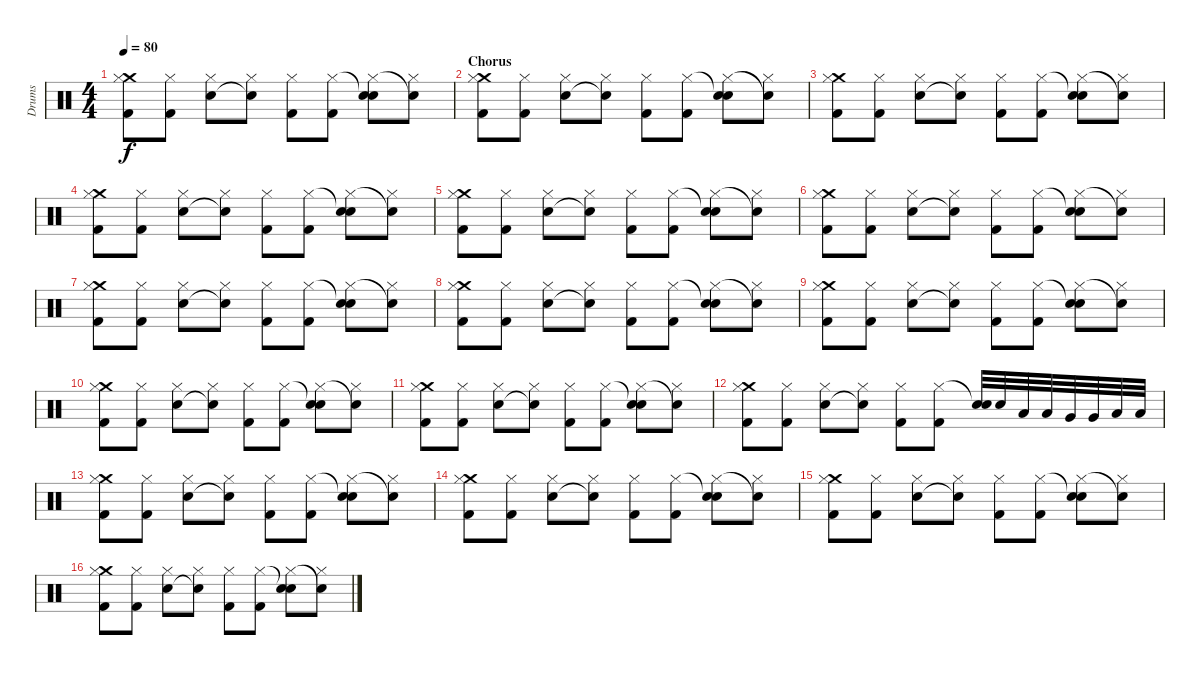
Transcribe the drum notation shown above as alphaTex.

\track ("Drums" "Drums") {instrument percussion}
\staff {score}
\articulation defaults
\ts (4 4)
\tempo 80
\clef neutral
\ks c
("Crash medium (hit)" "Hi-Hat (closed)" "Kick (hit) 2").8{dy f} ("Hi-Hat (closed)" "Kick (hit) 2").8 ("Hi-Hat (closed)" "Electric Snare (hit)").8 ("Hi-Hat (closed)" "Snare (hit)"{t}).8 ("Hi-Hat (closed)" "Kick (hit) 2").8 ("Hi-Hat (closed)" "Kick (hit) 2").8 ("Snare (hit)"{t} "Hi-Hat (closed)" "Electric Snare (hit)").8 ("Hi-Hat (closed)" "Snare (hit)"{t}).8 |
\section ("" "Chorus")
("Crash medium (hit)" "Hi-Hat (closed)" "Kick (hit) 2").8 ("Hi-Hat (closed)" "Kick (hit) 2").8 ("Hi-Hat (closed)" "Electric Snare (hit)").8 ("Hi-Hat (closed)" "Snare (hit)"{t}).8 ("Hi-Hat (closed)" "Kick (hit) 2").8 ("Hi-Hat (closed)" "Kick (hit) 2").8 ("Snare (hit)"{t} "Hi-Hat (closed)" "Electric Snare (hit)").8 ("Hi-Hat (closed)" "Snare (hit)"{t}).8 |
("Crash medium (hit)" "Hi-Hat (closed)" "Kick (hit) 2").8 ("Hi-Hat (closed)" "Kick (hit) 2").8 ("Hi-Hat (closed)" "Electric Snare (hit)").8 ("Hi-Hat (closed)" "Snare (hit)"{t}).8 ("Hi-Hat (closed)" "Kick (hit) 2").8 ("Hi-Hat (closed)" "Kick (hit) 2").8 ("Snare (hit)"{t} "Hi-Hat (closed)" "Electric Snare (hit)").8 ("Hi-Hat (closed)" "Snare (hit)"{t}).8 |
("Crash medium (hit)" "Hi-Hat (closed)" "Kick (hit) 2").8 ("Hi-Hat (closed)" "Kick (hit) 2").8 ("Hi-Hat (closed)" "Electric Snare (hit)").8 ("Hi-Hat (closed)" "Snare (hit)"{t}).8 ("Hi-Hat (closed)" "Kick (hit) 2").8 ("Hi-Hat (closed)" "Kick (hit) 2").8 ("Snare (hit)"{t} "Hi-Hat (closed)" "Electric Snare (hit)").8 ("Hi-Hat (closed)" "Snare (hit)"{t}).8 |
("Crash medium (hit)" "Hi-Hat (closed)" "Kick (hit) 2").8 ("Hi-Hat (closed)" "Kick (hit) 2").8 ("Hi-Hat (closed)" "Electric Snare (hit)").8 ("Hi-Hat (closed)" "Snare (hit)"{t}).8 ("Hi-Hat (closed)" "Kick (hit) 2").8 ("Hi-Hat (closed)" "Kick (hit) 2").8 ("Snare (hit)"{t} "Hi-Hat (closed)" "Electric Snare (hit)").8 ("Hi-Hat (closed)" "Snare (hit)"{t}).8 |
("Crash medium (hit)" "Hi-Hat (closed)" "Kick (hit) 2").8 ("Hi-Hat (closed)" "Kick (hit) 2").8 ("Hi-Hat (closed)" "Electric Snare (hit)").8 ("Hi-Hat (closed)" "Snare (hit)"{t}).8 ("Hi-Hat (closed)" "Kick (hit) 2").8 ("Hi-Hat (closed)" "Kick (hit) 2").8 ("Snare (hit)"{t} "Hi-Hat (closed)" "Electric Snare (hit)").8 ("Hi-Hat (closed)" "Snare (hit)"{t}).8 |
("Crash medium (hit)" "Hi-Hat (closed)" "Kick (hit) 2").8 ("Hi-Hat (closed)" "Kick (hit) 2").8 ("Hi-Hat (closed)" "Electric Snare (hit)").8 ("Hi-Hat (closed)" "Snare (hit)"{t}).8 ("Hi-Hat (closed)" "Kick (hit) 2").8 ("Hi-Hat (closed)" "Kick (hit) 2").8 ("Snare (hit)"{t} "Hi-Hat (closed)" "Electric Snare (hit)").8 ("Hi-Hat (closed)" "Snare (hit)"{t}).8 |
("Crash medium (hit)" "Hi-Hat (closed)" "Kick (hit) 2").8 ("Hi-Hat (closed)" "Kick (hit) 2").8 ("Hi-Hat (closed)" "Electric Snare (hit)").8 ("Hi-Hat (closed)" "Snare (hit)"{t}).8 ("Hi-Hat (closed)" "Kick (hit) 2").8 ("Hi-Hat (closed)" "Kick (hit) 2").8 ("Snare (hit)"{t} "Hi-Hat (closed)" "Electric Snare (hit)").8 ("Hi-Hat (closed)" "Snare (hit)"{t}).8 |
("Crash medium (hit)" "Hi-Hat (closed)" "Kick (hit) 2").8 ("Hi-Hat (closed)" "Kick (hit) 2").8 ("Hi-Hat (closed)" "Electric Snare (hit)").8 ("Hi-Hat (closed)" "Snare (hit)"{t}).8 ("Hi-Hat (closed)" "Kick (hit) 2").8 ("Hi-Hat (closed)" "Kick (hit) 2").8 ("Snare (hit)"{t} "Hi-Hat (closed)" "Electric Snare (hit)").8 ("Hi-Hat (closed)" "Snare (hit)"{t}).8 |
("Crash medium (hit)" "Hi-Hat (closed)" "Kick (hit) 2").8 ("Hi-Hat (closed)" "Kick (hit) 2").8 ("Hi-Hat (closed)" "Electric Snare (hit)").8 ("Hi-Hat (closed)" "Snare (hit)"{t}).8 ("Hi-Hat (closed)" "Kick (hit) 2").8 ("Hi-Hat (closed)" "Kick (hit) 2").8 ("Snare (hit)"{t} "Hi-Hat (closed)" "Electric Snare (hit)").8 ("Hi-Hat (closed)" "Snare (hit)"{t}).8 |
("Crash medium (hit)" "Hi-Hat (closed)" "Kick (hit) 2").8 ("Hi-Hat (closed)" "Kick (hit) 2").8 ("Hi-Hat (closed)" "Electric Snare (hit)").8 ("Hi-Hat (closed)" "Snare (hit)"{t}).8 ("Hi-Hat (closed)" "Kick (hit) 2").8 ("Hi-Hat (closed)" "Kick (hit) 2").8 ("Snare (hit)"{t} "Hi-Hat (closed)" "Electric Snare (hit)").8 ("Hi-Hat (closed)" "Snare (hit)"{t}).8 |
("Crash medium (hit)" "Hi-Hat (closed)" "Kick (hit) 2").8 ("Hi-Hat (closed)" "Kick (hit) 2").8 ("Hi-Hat (closed)" "Electric Snare (hit)").8 ("Hi-Hat (closed)" "Snare (hit)"{t}).8 ("Hi-Hat (closed)" "Kick (hit) 2").8 ("Hi-Hat (closed)" "Kick (hit) 2").8 ("Snare (hit)"{t} "Electric Snare (hit)").32 "Electric Snare (hit)".32 "Low Tom (hit)".32 "Low Tom (hit)".32 "Very Low Tom (hit)".32 "Very Low Tom (hit)".32 "Low Floor Tom (hit)".32 "Low Floor Tom (hit)".32 |
("Crash medium (hit)" "Hi-Hat (closed)" "Kick (hit) 2").8 ("Hi-Hat (closed)" "Kick (hit) 2").8 ("Hi-Hat (closed)" "Electric Snare (hit)").8 ("Hi-Hat (closed)" "Snare (hit)"{t}).8 ("Hi-Hat (closed)" "Kick (hit) 2").8 ("Hi-Hat (closed)" "Kick (hit) 2").8 ("Snare (hit)"{t} "Hi-Hat (closed)" "Electric Snare (hit)").8 ("Hi-Hat (closed)" "Snare (hit)"{t}).8 |
("Crash medium (hit)" "Hi-Hat (closed)" "Kick (hit) 2").8 ("Hi-Hat (closed)" "Kick (hit) 2").8 ("Hi-Hat (closed)" "Electric Snare (hit)").8 ("Hi-Hat (closed)" "Snare (hit)"{t}).8 ("Hi-Hat (closed)" "Kick (hit) 2").8 ("Hi-Hat (closed)" "Kick (hit) 2").8 ("Snare (hit)"{t} "Hi-Hat (closed)" "Electric Snare (hit)").8 ("Hi-Hat (closed)" "Snare (hit)"{t}).8 |
("Crash medium (hit)" "Hi-Hat (closed)" "Kick (hit) 2").8 ("Hi-Hat (closed)" "Kick (hit) 2").8 ("Hi-Hat (closed)" "Electric Snare (hit)").8 ("Hi-Hat (closed)" "Snare (hit)"{t}).8 ("Hi-Hat (closed)" "Kick (hit) 2").8 ("Hi-Hat (closed)" "Kick (hit) 2").8 ("Snare (hit)"{t} "Hi-Hat (closed)" "Electric Snare (hit)").8 ("Hi-Hat (closed)" "Snare (hit)"{t}).8 |
("Crash medium (hit)" "Hi-Hat (closed)" "Kick (hit) 2").8 ("Hi-Hat (closed)" "Kick (hit) 2").8 ("Hi-Hat (closed)" "Electric Snare (hit)").8 ("Hi-Hat (closed)" "Snare (hit)"{t}).8 ("Hi-Hat (closed)" "Kick (hit) 2").8 ("Hi-Hat (closed)" "Kick (hit) 2").8 ("Snare (hit)"{t} "Hi-Hat (closed)" "Electric Snare (hit)").8 ("Hi-Hat (closed)" "Snare (hit)"{t}).8
